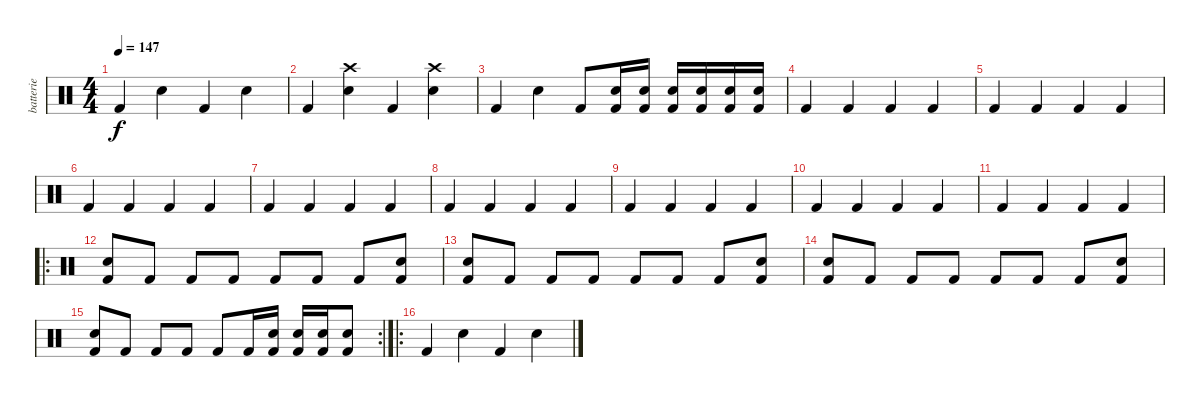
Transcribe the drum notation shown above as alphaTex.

\track ("batterie" "batterie") {instrument percussion}
\staff {score}
\articulation defaults
\ts (4 4)
\tempo 147
\clef neutral
\ks c "Kick (hit) 2".4{dy f} "Snare (hit) 2".4 "Kick (hit) 2".4 "Snare (hit) 2".4
|
"Kick (hit) 2".4 ("Snare (hit) 2" "Crash high (hit)").4 "Kick (hit) 2".4 ("Snare (hit) 2" "Crash high (hit)").4 |
"Kick (hit) 2".4 "Snare (hit) 2".4 "Kick (hit) 2".8 ("Snare (hit) 2" "Kick (hit) 2").16 ("Snare (hit) 2" "Kick (hit) 2").16 ("Snare (hit) 2" "Kick (hit) 2").16 ("Snare (hit) 2" "Kick (hit) 2").16 ("Snare (hit) 2" "Kick (hit) 2").16 ("Snare (hit) 2" "Kick (hit) 2").16 |
"Kick (hit) 2".4 "Kick (hit) 2".4 "Kick (hit) 2".4 "Kick (hit) 2".4 |
"Kick (hit) 2".4 "Kick (hit) 2".4 "Kick (hit) 2".4 "Kick (hit) 2".4 |
"Kick (hit) 2".4 "Kick (hit) 2".4 "Kick (hit) 2".4 "Kick (hit) 2".4 |
"Kick (hit) 2".4 "Kick (hit) 2".4 "Kick (hit) 2".4 "Kick (hit) 2".4 |
"Kick (hit) 2".4 "Kick (hit) 2".4 "Kick (hit) 2".4 "Kick (hit) 2".4 |
"Kick (hit) 2".4 "Kick (hit) 2".4 "Kick (hit) 2".4 "Kick (hit) 2".4 |
"Kick (hit) 2".4 "Kick (hit) 2".4 "Kick (hit) 2".4 "Kick (hit) 2".4 |
"Kick (hit) 2".4 "Kick (hit) 2".4 "Kick (hit) 2".4 "Kick (hit) 2".4 |
\ro
("Snare (hit) 2" "Kick (hit) 2").8 "Kick (hit) 2".8 "Kick (hit) 2".8 "Kick (hit) 2".8 "Kick (hit) 2".8 "Kick (hit) 2".8 "Kick (hit) 2".8 ("Snare (hit) 2" "Kick (hit) 2").8 |
("Snare (hit) 2" "Kick (hit) 2").8 "Kick (hit) 2".8 "Kick (hit) 2".8 "Kick (hit) 2".8 "Kick (hit) 2".8 "Kick (hit) 2".8 "Kick (hit) 2".8 ("Snare (hit) 2" "Kick (hit) 2").8 |
("Snare (hit) 2" "Kick (hit) 2").8 "Kick (hit) 2".8 "Kick (hit) 2".8 "Kick (hit) 2".8 "Kick (hit) 2".8 "Kick (hit) 2".8 "Kick (hit) 2".8 ("Snare (hit) 2" "Kick (hit) 2").8 |
\rc 2
("Snare (hit) 2" "Kick (hit) 2").8 "Kick (hit) 2".8 "Kick (hit) 2".8 "Kick (hit) 2".8 "Kick (hit) 2".8 "Kick (hit) 2".16 ("Snare (hit) 2" "Kick (hit) 2").16 ("Snare (hit) 2" "Kick (hit) 2").16 ("Snare (hit) 2" "Kick (hit) 2").16 ("Snare (hit) 2" "Kick (hit) 2").8 |
\ro "Kick (hit) 2".4 "Snare (hit) 2".4 "Kick (hit) 2".4 "Snare (hit) 2".4
